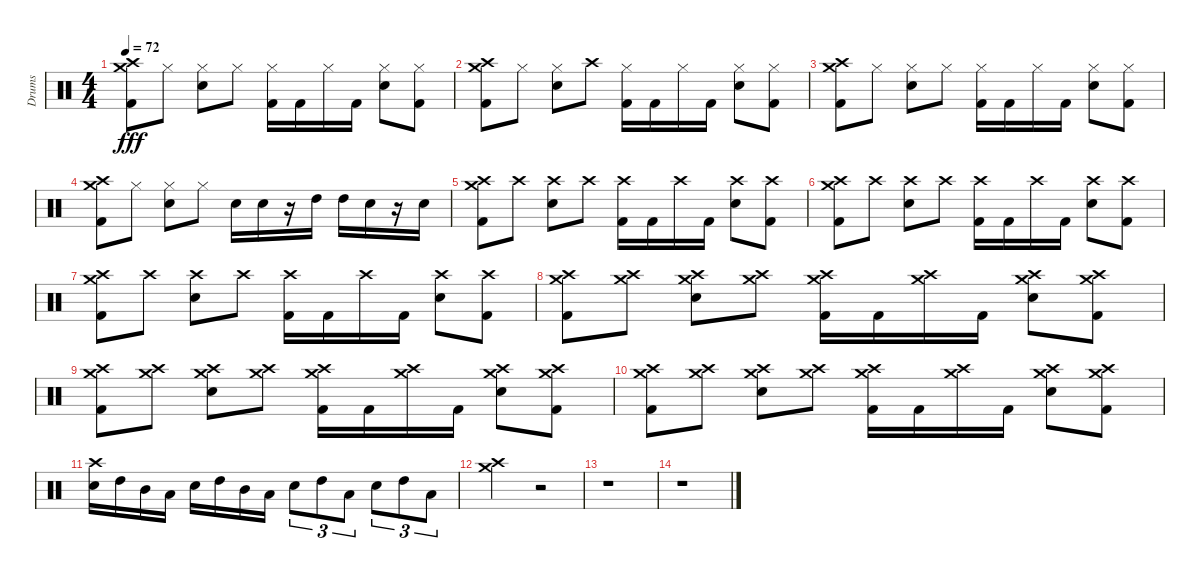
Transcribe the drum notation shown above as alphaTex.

\track ("Drums" "Drums") {instrument percussion}
\staff {score}
\articulation defaults
\ts (4 4)
\tempo 72
\clef neutral
\ks c
("Crash high (hit)" "Crash medium (hit)" "Kick (hit) 2").8{dy fff} "Hi-Hat (closed)".8 ("Hi-Hat (closed)" "Electric Snare (hit)").8 "Hi-Hat (closed)".8 ("Hi-Hat (closed)" "Kick (hit) 2").16 "Kick (hit) 2".16 "Hi-Hat (closed)".16 "Kick (hit) 2".16 ("Hi-Hat (closed)" "Electric Snare (hit)").8 ("Hi-Hat (closed)" "Kick (hit) 2").8 |
("Crash high (hit)" "Crash medium (hit)" "Kick (hit) 2").8 "Hi-Hat (closed)".8 ("Hi-Hat (closed)" "Electric Snare (hit)").8 "Crash high (hit)".8 ("Hi-Hat (closed)" "Kick (hit) 2").16 "Kick (hit) 2".16 "Hi-Hat (closed)".16 "Kick (hit) 2".16 ("Hi-Hat (closed)" "Electric Snare (hit)").8 ("Hi-Hat (closed)" "Kick (hit) 2").8 |
("Crash high (hit)" "Crash medium (hit)" "Kick (hit) 2").8 "Hi-Hat (closed)".8 ("Hi-Hat (closed)" "Electric Snare (hit)").8 "Hi-Hat (closed)".8 ("Hi-Hat (closed)" "Kick (hit) 2").16 "Kick (hit) 2".16 "Hi-Hat (closed)".16 "Kick (hit) 2".16 ("Hi-Hat (closed)" "Electric Snare (hit)").8 ("Hi-Hat (closed)" "Kick (hit) 2").8 |
("Crash high (hit)" "Crash medium (hit)" "Kick (hit) 2").8 "Hi-Hat (closed)".8 ("Hi-Hat (closed)" "Electric Snare (hit)").8 "Hi-Hat (closed)".8 "Electric Snare (hit)".16 "Electric Snare (hit)".16 r.16 "High Tom (hit)".16 "High Tom (hit)".16 "Electric Snare (hit)".16 r.16 "Electric Snare (hit)".16 |
("Crash high (hit)" "Crash medium (hit)" "Kick (hit) 2").8 "Crash high (hit)".8 ("Crash high (hit)" "Electric Snare (hit)").8 "Crash high (hit)".8 ("Crash high (hit)" "Kick (hit) 2").16 "Kick (hit) 2".16 "Crash high (hit)".16 "Kick (hit) 2".16 ("Crash high (hit)" "Electric Snare (hit)").8 ("Crash high (hit)" "Kick (hit) 2").8 |
("Crash high (hit)" "Crash medium (hit)" "Kick (hit) 2").8 "Crash high (hit)".8 ("Crash high (hit)" "Electric Snare (hit)").8 "Crash high (hit)".8 ("Crash high (hit)" "Kick (hit) 2").16 "Kick (hit) 2".16 "Crash high (hit)".16 "Kick (hit) 2".16 ("Crash high (hit)" "Electric Snare (hit)").8 ("Crash high (hit)" "Kick (hit) 2").8 |
("Crash high (hit)" "Crash medium (hit)" "Kick (hit) 2").8 "Crash high (hit)".8 ("Crash high (hit)" "Electric Snare (hit)").8 "Crash high (hit)".8 ("Crash high (hit)" "Kick (hit) 2").16 "Kick (hit) 2".16 "Crash high (hit)".16 "Kick (hit) 2".16 ("Crash high (hit)" "Electric Snare (hit)").8 ("Crash high (hit)" "Kick (hit) 2").8 |
("Crash high (hit)" "Crash medium (hit)" "Kick (hit) 2").8 ("Crash high (hit)" "Crash medium (hit)").8 ("Crash high (hit)" "Crash medium (hit)" "Electric Snare (hit)").8 ("Crash high (hit)" "Crash medium (hit)").8 ("Crash high (hit)" "Crash medium (hit)" "Kick (hit) 2").16 "Kick (hit) 2".16 ("Crash high (hit)" "Crash medium (hit)").16 "Kick (hit) 2".16 ("Crash high (hit)" "Crash medium (hit)" "Electric Snare (hit)").8 ("Crash high (hit)" "Crash medium (hit)" "Kick (hit) 2").8 |
("Crash high (hit)" "Crash medium (hit)" "Kick (hit) 2").8 ("Crash high (hit)" "Crash medium (hit)").8 ("Crash high (hit)" "Crash medium (hit)" "Electric Snare (hit)").8 ("Crash high (hit)" "Crash medium (hit)").8 ("Crash high (hit)" "Crash medium (hit)" "Kick (hit) 2").16 "Kick (hit) 2".16 ("Crash high (hit)" "Crash medium (hit)").16 "Kick (hit) 2".16 ("Crash high (hit)" "Crash medium (hit)" "Electric Snare (hit)").8 ("Crash high (hit)" "Crash medium (hit)" "Kick (hit) 2").8 |
("Crash high (hit)" "Crash medium (hit)" "Kick (hit) 2").8 ("Crash high (hit)" "Crash medium (hit)").8 ("Crash high (hit)" "Crash medium (hit)" "Electric Snare (hit)").8 ("Crash high (hit)" "Crash medium (hit)").8 ("Crash high (hit)" "Crash medium (hit)" "Kick (hit) 2").16 "Kick (hit) 2".16 ("Crash high (hit)" "Crash medium (hit)").16 "Kick (hit) 2".16 ("Crash high (hit)" "Crash medium (hit)" "Electric Snare (hit)").8 ("Crash high (hit)" "Crash medium (hit)" "Kick (hit) 2").8 |
("Crash high (hit)" "Electric Snare (hit)").16 "High Tom (hit)".16 "Mid Tom (hit)".16 "Low Tom (hit)".16 "Electric Snare (hit)".16 "High Tom (hit)".16 "Mid Tom (hit)".16 "Low Tom (hit)".16 "Electric Snare (hit)".8{tu (3 2)} "High Tom (hit)".8{tu (3 2)} "Low Tom (hit)".8{tu (3 2)} "Electric Snare (hit)".8{tu (3 2)} "High Tom (hit)".8{tu (3 2)} "Low Tom (hit)".8{tu (3 2)} |
("Crash high (hit)" "Crash medium (hit)").2 r.2 |
r.1 |
r.1
